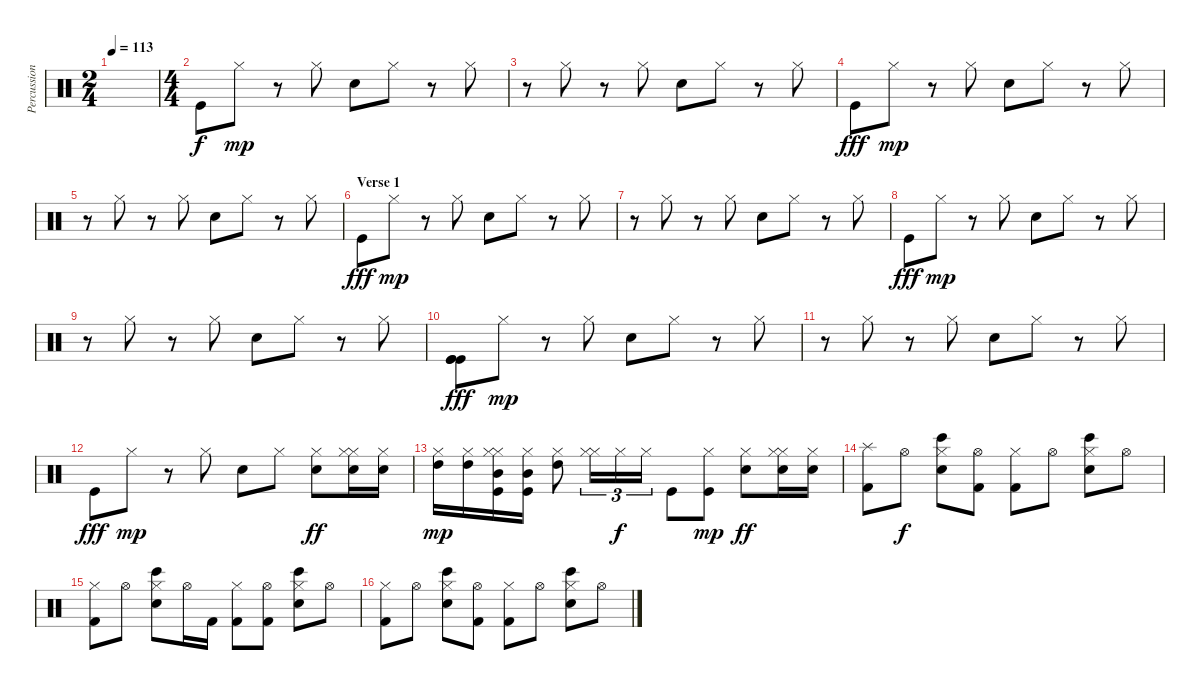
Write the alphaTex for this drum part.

\track ("Percussion" "Percussion") {instrument percussion}
\staff {score}
\articulation defaults
\ts (2 4)
\tempo 113
\clef neutral
\ks c
|
\ts (4 4)
"Kick (hit)".8{volume 8} "Hi-Hat (closed)".8{dy mp} r.8 "Hi-Hat (closed)".8 "Electric Snare (hit)".8 "Hi-Hat (closed)".8 r.8 "Hi-Hat (closed)".8 |
r.8 "Hi-Hat (closed)".8 r.8 "Hi-Hat (closed)".8 "Electric Snare (hit)".8 "Hi-Hat (closed)".8 r.8 "Hi-Hat (closed)".8 |
"Kick (hit)".8{dy fff} "Hi-Hat (closed)".8{dy mp} r.8 "Hi-Hat (closed)".8 "Electric Snare (hit)".8 "Hi-Hat (closed)".8 r.8 "Hi-Hat (closed)".8 |
r.8 "Hi-Hat (closed)".8 r.8 "Hi-Hat (closed)".8 "Electric Snare (hit)".8 "Hi-Hat (closed)".8 r.8 "Hi-Hat (closed)".8 |
\section ("" "Verse 1")
"Kick (hit)".8{dy fff} "Hi-Hat (closed)".8{dy mp} r.8 "Hi-Hat (closed)".8 "Electric Snare (hit)".8 "Hi-Hat (closed)".8 r.8 "Hi-Hat (closed)".8 |
r.8 "Hi-Hat (closed)".8 r.8 "Hi-Hat (closed)".8 "Electric Snare (hit)".8 "Hi-Hat (closed)".8 r.8 "Hi-Hat (closed)".8 |
"Kick (hit)".8{dy fff} "Hi-Hat (closed)".8{dy mp} r.8 "Hi-Hat (closed)".8 "Electric Snare (hit)".8 "Hi-Hat (closed)".8 r.8 "Hi-Hat (closed)".8 |
r.8 "Hi-Hat (closed)".8 r.8 "Hi-Hat (closed)".8 "Electric Snare (hit)".8 "Hi-Hat (closed)".8 r.8 "Hi-Hat (closed)".8 |
("Kick (hit)" "Kick (hit)" "Kick (hit)").8{dy fff} "Hi-Hat (closed)".8{dy mp} r.8 "Hi-Hat (closed)".8 "Electric Snare (hit)".8 "Hi-Hat (closed)".8 r.8 "Hi-Hat (closed)".8 |
r.8 "Hi-Hat (closed)".8 r.8 "Hi-Hat (closed)".8 "Electric Snare (hit)".8 "Hi-Hat (closed)".8 r.8 "Hi-Hat (closed)".8 |
"Kick (hit)".8{dy fff} "Hi-Hat (closed)".8{dy mp} r.8 "Hi-Hat (closed)".8 "Electric Snare (hit)".8 "Hi-Hat (closed)".8 ("Electric Snare (hit)" "Hi-Hat (closed)").8{dy ff volume 13} ("Hi-Hat (closed)" "Electric Snare (hit)" "Hi-Hat (closed)").16 ("Electric Snare (hit)" "Hi-Hat (closed)").16 |
("Hi-Hat (closed)" "High Tom (hit)").16{dy mp} ("Hi-Hat (closed)" "High Tom (hit)").16 ("Hi-Hat (closed)" "Hi-Hat (closed)" "Mid Tom (hit)" "Kick (hit)").16 ("Hi-Hat (closed)" "Mid Tom (hit)" "Kick (hit)").16 ("Hi-Hat (closed)" "High Tom (hit)").8 ("Hi-Hat (closed)" "Hi-Hat (closed)").16{tu (3 2)} "Hi-Hat (closed)".16{tu (3 2) dy f} "Hi-Hat (closed)".16{tu (3 2)} "Kick (hit)".8 ("Hi-Hat (closed)" "Kick (hit)").8{dy mp} ("Electric Snare (hit)" "Hi-Hat (closed)").8{dy ff} ("Hi-Hat (closed)" "Electric Snare (hit)" "Hi-Hat (closed)").16 ("Electric Snare (hit)" "Hi-Hat (closed)").16 |
("Splash (hit)" "Kick (hit) 2").8{volume 13} "Hi-Hat (open)".8{dy f} ("Hi-Hat (closed)" "Electric Snare (hit)" "Bongo High (hit)").8 ("Hi-Hat (open)" "Kick (hit) 2").8 ("Hi-Hat (closed)" "Kick (hit) 2").8 "Hi-Hat (open)".8 ("Hi-Hat (closed)" "Electric Snare (hit)" "Bongo High (hit)").8 "Hi-Hat (open)".8 |
("Hi-Hat (closed)" "Kick (hit) 2").8 "Hi-Hat (open)".8 ("Hi-Hat (closed)" "Electric Snare (hit)" "Bongo High (hit)").8 "Hi-Hat (open)".16 "Kick (hit) 2".16 ("Hi-Hat (closed)" "Kick (hit) 2").8 ("Hi-Hat (open)" "Kick (hit) 2").8 ("Hi-Hat (closed)" "Electric Snare (hit)" "Bongo High (hit)").8 "Hi-Hat (open)".8 |
("Hi-Hat (closed)" "Kick (hit) 2").8 "Hi-Hat (open)".8 ("Hi-Hat (closed)" "Electric Snare (hit)" "Bongo High (hit)").8 ("Hi-Hat (open)" "Kick (hit) 2").8 ("Hi-Hat (closed)" "Kick (hit) 2").8 "Hi-Hat (open)".8 ("Hi-Hat (closed)" "Electric Snare (hit)" "Bongo High (hit)").8 "Hi-Hat (open)".8
